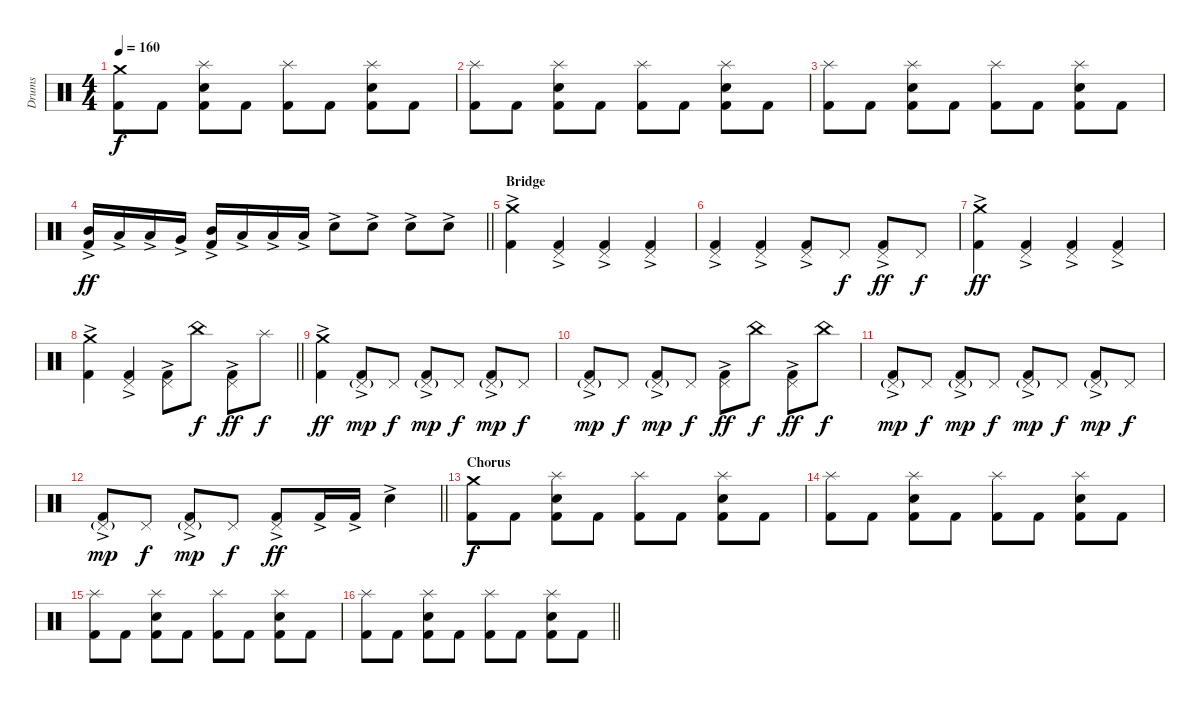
\track ("Drums" "Drums") {instrument percussion}
\staff {score}
\articulation defaults
\ts (4 4)
\section ("" "")
\tempo 160
\clef neutral
\ks c
("Kick (hit) 2" "Crash medium (hit)").8{dy f} "Kick (hit) 2".8 ("Kick (hit) 2" "Snare (hit) 2" "Splash (hit)").8 "Kick (hit) 2".8 ("Kick (hit) 2" "Splash (hit)").8 "Kick (hit) 2".8 ("Kick (hit) 2" "Snare (hit) 2" "Splash (hit)").8 "Kick (hit) 2".8 |
("Kick (hit) 2" "Splash (hit)").8 "Kick (hit) 2".8 ("Kick (hit) 2" "Snare (hit) 2" "Splash (hit)").8 "Kick (hit) 2".8 ("Kick (hit) 2" "Splash (hit)").8 "Kick (hit) 2".8 ("Kick (hit) 2" "Snare (hit) 2" "Splash (hit)").8 "Kick (hit) 2".8 |
("Kick (hit) 2" "Splash (hit)").8 "Kick (hit) 2".8 ("Kick (hit) 2" "Snare (hit) 2" "Splash (hit)").8 "Kick (hit) 2".8 ("Kick (hit) 2" "Splash (hit)").8 "Kick (hit) 2".8 ("Kick (hit) 2" "Snare (hit) 2" "Splash (hit)").8 "Kick (hit) 2".8 |
\barLineRight lightlight
("Kick (hit) 2" "Mid Tom (hit)"{ac}).16{dy ff} "Low Tom (hit)"{ac}.16 "Low Tom (hit)"{ac}.16 "Very Low Tom (hit)"{ac}.16 ("Kick (hit) 2" "Mid Tom (hit)"{ac}).16 "Low Tom (hit)"{ac}.16 "Low Floor Tom (hit)"{ac}.16 "Low Floor Tom (hit)"{ac}.16 "Snare (hit) 2"{ac}.8 "Snare (hit) 2"{ac}.8 "Snare (hit) 2"{ac}.8 "Snare (hit) 2"{ac}.8 |
\section ("" "Bridge")
("Kick (hit) 2"{ac} "Crash medium (hit)").4{volume 12} ("Kick (hit) 2"{ac} "Pedal Hi-Hat (hit)").4 ("Kick (hit) 2"{ac} "Pedal Hi-Hat (hit)").4 ("Kick (hit) 2"{ac} "Pedal Hi-Hat (hit)").4 |
("Kick (hit) 2"{ac} "Pedal Hi-Hat (hit)").4 ("Kick (hit) 2"{ac} "Pedal Hi-Hat (hit)").4 ("Kick (hit) 2"{ac} "Pedal Hi-Hat (hit)").8 "Pedal Hi-Hat (hit)".8{dy f} ("Kick (hit) 2"{ac} "Pedal Hi-Hat (hit)").8{dy ff} "Pedal Hi-Hat (hit)".8{dy f} |
("Kick (hit) 2"{ac} "Crash medium (hit)").4{dy ff} ("Kick (hit) 2"{ac} "Pedal Hi-Hat (hit)").4 ("Kick (hit) 2"{ac} "Pedal Hi-Hat (hit)").4 ("Kick (hit) 2"{ac} "Pedal Hi-Hat (hit)").4 |
\barLineRight lightlight
("Kick (hit) 2"{ac} "Crash medium (hit)").4 ("Kick (hit) 2"{ac} "Pedal Hi-Hat (hit)").4 ("Kick (hit) 2"{ac} "Pedal Hi-Hat (hit)").8 "China (hit)".8{dy f} ("Kick (hit) 2"{ac} "Pedal Hi-Hat (hit)").8{dy ff} "Splash (hit)".8{dy f} |
\section ("" "")
("Kick (hit) 2"{ac} "Crash medium (hit)").4{dy ff} ("Kick (hit) 2"{ac} "Pedal Hi-Hat (hit)"{g}).8{dy mp} "Pedal Hi-Hat (hit)".8{dy f} ("Kick (hit) 2"{ac} "Pedal Hi-Hat (hit)"{g}).8{dy mp} "Pedal Hi-Hat (hit)".8{dy f} ("Kick (hit) 2"{ac} "Pedal Hi-Hat (hit)"{g}).8{dy mp} "Pedal Hi-Hat (hit)".8{dy f} |
("Kick (hit) 2"{ac} "Pedal Hi-Hat (hit)"{g}).8{dy mp} "Pedal Hi-Hat (hit)".8{dy f} ("Kick (hit) 2"{ac} "Pedal Hi-Hat (hit)"{g}).8{dy mp} "Pedal Hi-Hat (hit)".8{dy f} ("Kick (hit) 2"{ac} "Pedal Hi-Hat (hit)").8{dy ff} "China (hit)".8{dy f} ("Kick (hit) 2"{ac} "Pedal Hi-Hat (hit)").8{dy ff} "China (hit)".8{dy f} |
("Kick (hit) 2"{ac} "Pedal Hi-Hat (hit)"{g}).8{dy mp} "Pedal Hi-Hat (hit)".8{dy f} ("Kick (hit) 2"{ac} "Pedal Hi-Hat (hit)"{g}).8{dy mp} "Pedal Hi-Hat (hit)".8{dy f} ("Kick (hit) 2"{ac} "Pedal Hi-Hat (hit)"{g}).8{dy mp volume 13} "Pedal Hi-Hat (hit)".8{dy f} ("Kick (hit) 2"{ac} "Pedal Hi-Hat (hit)"{g}).8{dy mp} "Pedal Hi-Hat (hit)".8{dy f} |
\barLineRight lightlight
("Kick (hit) 2"{ac} "Pedal Hi-Hat (hit)"{g}).8{dy mp volume 15} "Pedal Hi-Hat (hit)".8{dy f} ("Kick (hit) 2"{ac} "Pedal Hi-Hat (hit)"{g}).8{dy mp} "Pedal Hi-Hat (hit)".8{dy f} ("Kick (hit) 2"{ac} "Pedal Hi-Hat (hit)").8{dy ff} "Kick (hit) 2"{ac}.16 "Kick (hit) 2"{ac}.16 "Snare (hit) 2"{ac}.4 |
\section ("" "Chorus")
("Kick (hit) 2" "Crash medium (hit)").8{dy f volume 15} "Kick (hit) 2".8 ("Kick (hit) 2" "Snare (hit) 2" "Splash (hit)").8 "Kick (hit) 2".8 ("Kick (hit) 2" "Splash (hit)").8 "Kick (hit) 2".8 ("Kick (hit) 2" "Snare (hit) 2" "Splash (hit)").8 "Kick (hit) 2".8 |
("Kick (hit) 2" "Splash (hit)").8 "Kick (hit) 2".8 ("Kick (hit) 2" "Snare (hit) 2" "Splash (hit)").8 "Kick (hit) 2".8 ("Kick (hit) 2" "Splash (hit)").8 "Kick (hit) 2".8 ("Kick (hit) 2" "Snare (hit) 2" "Splash (hit)").8 "Kick (hit) 2".8 |
("Kick (hit) 2" "Splash (hit)").8 "Kick (hit) 2".8 ("Kick (hit) 2" "Snare (hit) 2" "Splash (hit)").8 "Kick (hit) 2".8 ("Kick (hit) 2" "Splash (hit)").8 "Kick (hit) 2".8 ("Kick (hit) 2" "Snare (hit) 2" "Splash (hit)").8 "Kick (hit) 2".8 |
\barLineRight lightlight
("Kick (hit) 2" "Splash (hit)").8 "Kick (hit) 2".8 ("Kick (hit) 2" "Snare (hit) 2" "Splash (hit)").8 "Kick (hit) 2".8 ("Kick (hit) 2" "Splash (hit)").8 "Kick (hit) 2".8 ("Kick (hit) 2" "Snare (hit) 2" "Splash (hit)").8 "Kick (hit) 2".8
